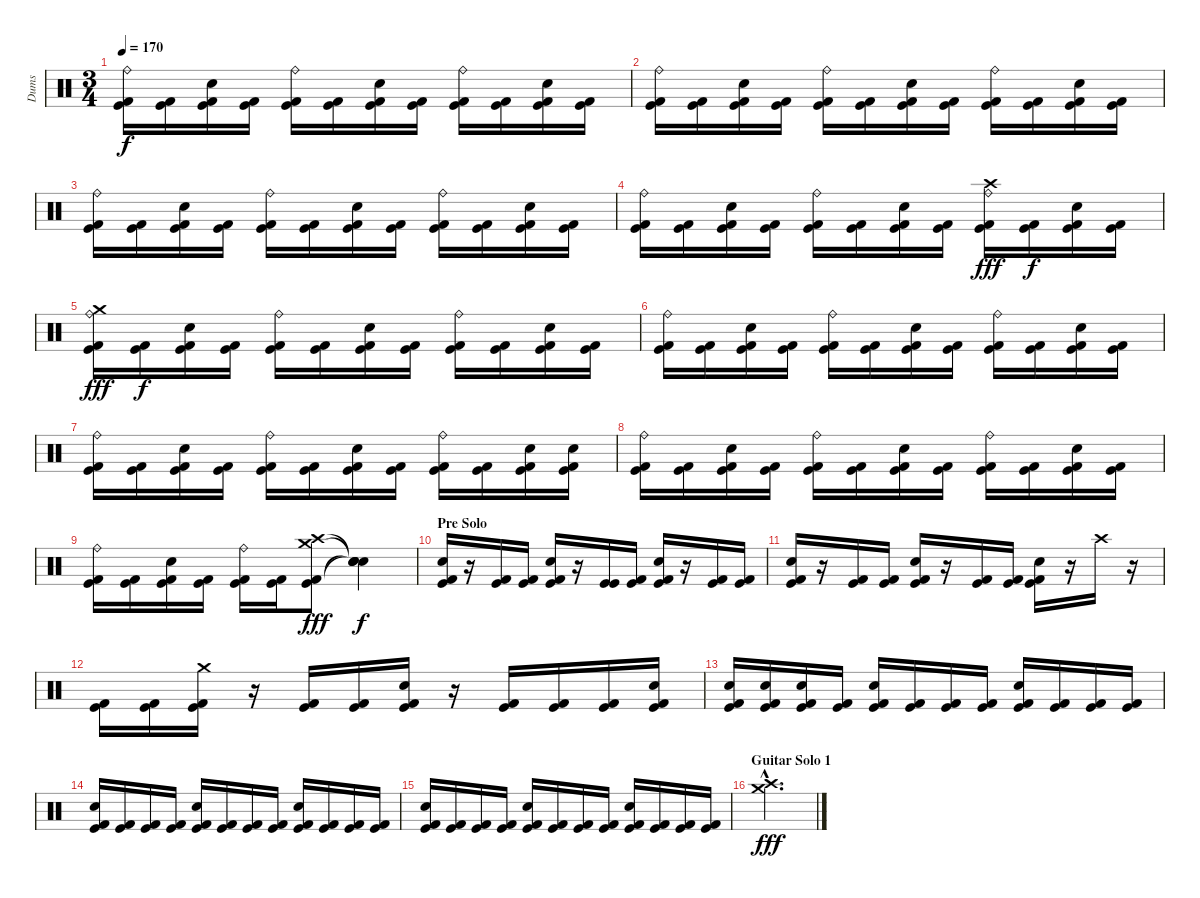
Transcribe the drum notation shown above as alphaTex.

\track ("Dums" "Dums") {instrument percussion}
\staff {score}
\articulation defaults
\ts (3 4)
\tempo 170
\clef neutral
\ks c
("Ride (bell)" "Kick (hit)" "Kick (hit) 2").16{dy f} ("Kick (hit)" "Kick (hit) 2").16 ("Electric Snare (hit)" "Kick (hit)" "Kick (hit) 2").16 ("Kick (hit)" "Kick (hit) 2").16 ("Ride (bell)" "Kick (hit)" "Kick (hit) 2").16 ("Kick (hit)" "Kick (hit) 2").16 ("Electric Snare (hit)" "Kick (hit)" "Kick (hit) 2").16 ("Kick (hit)" "Kick (hit) 2").16 ("Ride (bell)" "Kick (hit)" "Kick (hit) 2").16 ("Kick (hit)" "Kick (hit) 2").16 ("Electric Snare (hit)" "Kick (hit)" "Kick (hit) 2").16 ("Kick (hit)" "Kick (hit) 2").16 |
("Ride (bell)" "Kick (hit)" "Kick (hit) 2").16 ("Kick (hit)" "Kick (hit) 2").16 ("Electric Snare (hit)" "Kick (hit)" "Kick (hit) 2").16 ("Kick (hit)" "Kick (hit) 2").16 ("Ride (bell)" "Kick (hit)" "Kick (hit) 2").16 ("Kick (hit)" "Kick (hit) 2").16 ("Electric Snare (hit)" "Kick (hit)" "Kick (hit) 2").16 ("Kick (hit)" "Kick (hit) 2").16 ("Ride (bell)" "Kick (hit)" "Kick (hit) 2").16 ("Kick (hit)" "Kick (hit) 2").16 ("Electric Snare (hit)" "Kick (hit)" "Kick (hit) 2").16 ("Kick (hit)" "Kick (hit) 2").16 |
("Ride (bell)" "Kick (hit)" "Kick (hit) 2").16 ("Kick (hit)" "Kick (hit) 2").16 ("Electric Snare (hit)" "Kick (hit)" "Kick (hit) 2").16 ("Kick (hit)" "Kick (hit) 2").16 ("Ride (bell)" "Kick (hit)" "Kick (hit) 2").16 ("Kick (hit)" "Kick (hit) 2").16 ("Electric Snare (hit)" "Kick (hit)" "Kick (hit) 2").16 ("Kick (hit)" "Kick (hit) 2").16 ("Ride (bell)" "Kick (hit)" "Kick (hit) 2").16 ("Kick (hit)" "Kick (hit) 2").16 ("Electric Snare (hit)" "Kick (hit)" "Kick (hit) 2").16 ("Kick (hit)" "Kick (hit) 2").16 |
("Ride (bell)" "Kick (hit)" "Kick (hit) 2").16 ("Kick (hit)" "Kick (hit) 2").16 ("Electric Snare (hit)" "Kick (hit)" "Kick (hit) 2").16 ("Kick (hit)" "Kick (hit) 2").16 ("Ride (bell)" "Kick (hit)" "Kick (hit) 2").16 ("Kick (hit)" "Kick (hit) 2").16 ("Electric Snare (hit)" "Kick (hit)" "Kick (hit) 2").16 ("Kick (hit)" "Kick (hit) 2").16 ("Crash high (hit)" "Ride (bell)" "Kick (hit)" "Kick (hit) 2").16{dy fff} ("Kick (hit)" "Kick (hit) 2").16{dy f} ("Electric Snare (hit)" "Kick (hit)" "Kick (hit) 2").16 ("Kick (hit)" "Kick (hit) 2").16 |
("Crash medium (hit)" "Ride (bell)" "Kick (hit)" "Kick (hit) 2").16{dy fff} ("Kick (hit)" "Kick (hit) 2").16{dy f} ("Electric Snare (hit)" "Kick (hit)" "Kick (hit) 2").16 ("Kick (hit)" "Kick (hit) 2").16 ("Ride (bell)" "Kick (hit)" "Kick (hit) 2").16 ("Kick (hit)" "Kick (hit) 2").16 ("Electric Snare (hit)" "Kick (hit)" "Kick (hit) 2").16 ("Kick (hit)" "Kick (hit) 2").16 ("Ride (bell)" "Kick (hit)" "Kick (hit) 2").16 ("Kick (hit)" "Kick (hit) 2").16 ("Electric Snare (hit)" "Kick (hit)" "Kick (hit) 2").16 ("Kick (hit)" "Kick (hit) 2").16 |
("Ride (bell)" "Kick (hit)" "Kick (hit) 2").16 ("Kick (hit)" "Kick (hit) 2").16 ("Electric Snare (hit)" "Kick (hit)" "Kick (hit) 2").16 ("Kick (hit)" "Kick (hit) 2").16 ("Ride (bell)" "Kick (hit)" "Kick (hit) 2").16 ("Kick (hit)" "Kick (hit) 2").16 ("Electric Snare (hit)" "Kick (hit)" "Kick (hit) 2").16 ("Kick (hit)" "Kick (hit) 2").16 ("Ride (bell)" "Kick (hit)" "Kick (hit) 2").16 ("Kick (hit)" "Kick (hit) 2").16 ("Electric Snare (hit)" "Kick (hit)" "Kick (hit) 2").16 ("Kick (hit)" "Kick (hit) 2").16 |
("Ride (bell)" "Kick (hit)" "Kick (hit) 2").16 ("Kick (hit)" "Kick (hit) 2").16 ("Electric Snare (hit)" "Kick (hit)" "Kick (hit) 2").16 ("Kick (hit)" "Kick (hit) 2").16 ("Ride (bell)" "Kick (hit)" "Kick (hit) 2").16 ("Kick (hit)" "Kick (hit) 2").16 ("Electric Snare (hit)" "Kick (hit)" "Kick (hit) 2").16 ("Kick (hit)" "Kick (hit) 2").16 ("Ride (bell)" "Kick (hit)" "Kick (hit) 2").16 ("Kick (hit)" "Kick (hit) 2").16 ("Electric Snare (hit)" "Kick (hit)" "Kick (hit) 2").16 ("Electric Snare (hit)" "Kick (hit)" "Kick (hit) 2").16 |
("Ride (bell)" "Kick (hit)" "Kick (hit) 2").16 ("Kick (hit)" "Kick (hit) 2").16 ("Electric Snare (hit)" "Kick (hit)" "Kick (hit) 2").16 ("Kick (hit)" "Kick (hit) 2").16 ("Ride (bell)" "Kick (hit)" "Kick (hit) 2").16 ("Kick (hit)" "Kick (hit) 2").16 ("Electric Snare (hit)" "Kick (hit)" "Kick (hit) 2").16 ("Kick (hit)" "Kick (hit) 2").16 ("Ride (bell)" "Kick (hit)" "Kick (hit) 2").16 ("Kick (hit)" "Kick (hit) 2").16 ("Electric Snare (hit)" "Kick (hit)" "Kick (hit) 2").16 ("Kick (hit)" "Kick (hit) 2").16 |
("Ride (bell)" "Kick (hit)" "Kick (hit) 2").16 ("Kick (hit)" "Kick (hit) 2").16 ("Electric Snare (hit)" "Kick (hit)" "Kick (hit) 2").16 ("Kick (hit)" "Kick (hit) 2").16 ("Ride (bell)" "Kick (hit)" "Kick (hit) 2").16 ("Kick (hit)" "Kick (hit) 2").16 ("Crash high (hit)" "Crash medium (hit)" "Kick (hit)" "Kick (hit) 2").8{dy fff} ("Snare (hit)"{t} "Snare (hit)"{t} "Snare (hit)"{t} "Snare (hit)"{t}).4{dy f} |
\section ("" "Pre Solo")
("Electric Snare (hit)" "Kick (hit)" "Kick (hit) 2").16 r.16 ("Kick (hit)" "Kick (hit) 2").16 ("Kick (hit)" "Kick (hit) 2").16 ("Electric Snare (hit)" "Kick (hit)" "Kick (hit) 2").16 r.16 ("Kick (hit)" "Kick (hit)").16 ("Kick (hit)" "Kick (hit) 2").16 ("Electric Snare (hit)" "Kick (hit)" "Kick (hit) 2").16 r.16 ("Kick (hit)" "Kick (hit) 2").16 ("Kick (hit)" "Kick (hit) 2").16 |
("Electric Snare (hit)" "Kick (hit)" "Kick (hit) 2").16 r.16 ("Kick (hit)" "Kick (hit) 2").16 ("Kick (hit)" "Kick (hit) 2").16 ("Electric Snare (hit)" "Kick (hit)" "Kick (hit) 2").16 r.16 ("Kick (hit)" "Kick (hit) 2").16 ("Kick (hit)" "Kick (hit) 2").16 ("Electric Snare (hit)" "Kick (hit)" "Kick (hit) 2").16 r.16 "Crash high (hit)".16 r.16 |
("Kick (hit)" "Kick (hit) 2").16 ("Kick (hit)" "Kick (hit) 2").16 ("Crash medium (hit)" "Kick (hit)" "Kick (hit) 2").16 r.16 ("Kick (hit)" "Kick (hit) 2").16 ("Kick (hit)" "Kick (hit) 2").16 ("Electric Snare (hit)" "Kick (hit)" "Kick (hit) 2").16 r.16 ("Kick (hit)" "Kick (hit) 2").16 ("Kick (hit)" "Kick (hit) 2").16 ("Kick (hit)" "Kick (hit) 2").16 ("Electric Snare (hit)" "Kick (hit)" "Kick (hit) 2").16 |
("Electric Snare (hit)" "Kick (hit)" "Kick (hit) 2").16 ("Electric Snare (hit)" "Kick (hit)" "Kick (hit) 2").16 ("Electric Snare (hit)" "Kick (hit)" "Kick (hit) 2").16 ("Kick (hit)" "Kick (hit) 2").16 ("Electric Snare (hit)" "Kick (hit)" "Kick (hit) 2").16 ("Kick (hit)" "Kick (hit) 2").16 ("Kick (hit)" "Kick (hit) 2").16 ("Kick (hit)" "Kick (hit) 2").16 ("Electric Snare (hit)" "Kick (hit)" "Kick (hit) 2").16 ("Kick (hit)" "Kick (hit) 2").16 ("Kick (hit)" "Kick (hit) 2").16 ("Kick (hit)" "Kick (hit) 2").16 |
("Electric Snare (hit)" "Kick (hit)" "Kick (hit) 2").16 ("Kick (hit)" "Kick (hit) 2").16 ("Kick (hit)" "Kick (hit) 2").16 ("Kick (hit)" "Kick (hit) 2").16 ("Electric Snare (hit)" "Kick (hit)" "Kick (hit) 2").16 ("Kick (hit)" "Kick (hit) 2").16 ("Kick (hit)" "Kick (hit) 2").16 ("Kick (hit)" "Kick (hit) 2").16 ("Electric Snare (hit)" "Kick (hit)" "Kick (hit) 2").16 ("Kick (hit)" "Kick (hit) 2").16 ("Kick (hit)" "Kick (hit) 2").16 ("Kick (hit)" "Kick (hit) 2").16 |
("Electric Snare (hit)" "Kick (hit)" "Kick (hit) 2").16 ("Kick (hit)" "Kick (hit) 2").16 ("Kick (hit)" "Kick (hit) 2").16 ("Kick (hit)" "Kick (hit) 2").16 ("Electric Snare (hit)" "Kick (hit)" "Kick (hit) 2").16 ("Kick (hit)" "Kick (hit) 2").16 ("Kick (hit)" "Kick (hit) 2").16 ("Kick (hit)" "Kick (hit) 2").16 ("Electric Snare (hit)" "Kick (hit)" "Kick (hit) 2").16 ("Kick (hit)" "Kick (hit) 2").16 ("Kick (hit)" "Kick (hit) 2").16 ("Kick (hit)" "Kick (hit) 2").16 |
\section ("" "Guitar Solo 1")
("Crash high (hit)"{hac} "Crash medium (hit)"{hac}).2{d dy fff}
